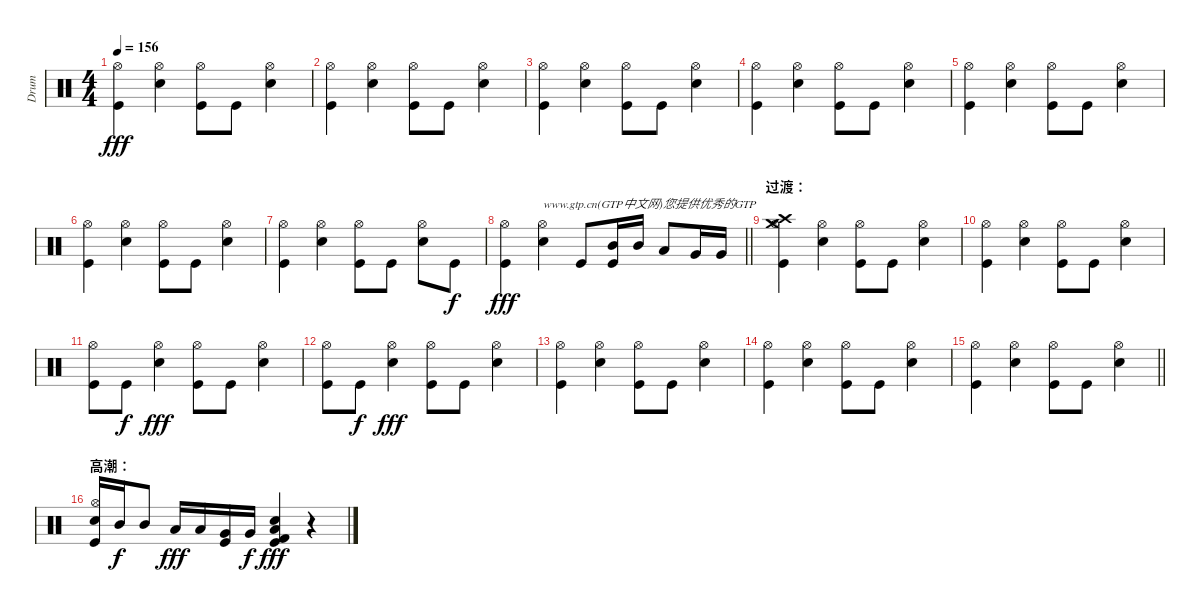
\track ("Drum" "Drum") {instrument percussion}
\staff {score}
\articulation defaults
\ts (4 4)
\tempo 156
\clef neutral
\ks c
("Kick (hit)" "Hi-Hat (open)").4{dy fff} ("Metronome (bell)" "Hi-Hat (open)").4 ("Kick (hit)" "Hi-Hat (open)").8 "Kick (hit)".8 ("Metronome (bell)" "Hi-Hat (open)").4 |
("Hi-Hat (open)" "Kick (hit)").4 ("Metronome (bell)" "Hi-Hat (open)").4 ("Hi-Hat (open)" "Kick (hit)").8 "Kick (hit)".8 ("Metronome (bell)" "Hi-Hat (open)").4 |
("Hi-Hat (open)" "Kick (hit)").4 ("Metronome (bell)" "Hi-Hat (open)").4 ("Hi-Hat (open)" "Kick (hit)").8 "Kick (hit)".8 ("Hi-Hat (open)" "Metronome (bell)").4 |
("Hi-Hat (open)" "Kick (hit)").4 ("Metronome (bell)" "Hi-Hat (open)").4 ("Hi-Hat (open)" "Kick (hit)").8 "Kick (hit)".8 ("Hi-Hat (open)" "Metronome (bell)").4 |
("Hi-Hat (open)" "Kick (hit)").4 ("Metronome (bell)" "Hi-Hat (open)").4 ("Hi-Hat (open)" "Kick (hit)").8 "Kick (hit)".8 ("Metronome (bell)" "Hi-Hat (open)").4 |
("Hi-Hat (open)" "Kick (hit)").4 ("Hi-Hat (open)" "Metronome (bell)").4 ("Hi-Hat (open)" "Kick (hit)").8 "Kick (hit)".8 ("Hi-Hat (open)" "Metronome (bell)").4 |
("Hi-Hat (open)" "Kick (hit)").4 ("Hi-Hat (open)" "Metronome (bell)").4 ("Kick (hit)" "Hi-Hat (open)").8 "Kick (hit)".8 ("Metronome (bell)" "Hi-Hat (open)").8 "Kick (hit)".8{dy f} |
\barLineRight lightlight
("Kick (hit)" "Hi-Hat (open)").4{dy fff} ("Metronome (bell)" "Hi-Hat (open)").4{txt "www.gtp.cn(GTP中文网)您提供优秀的GTP"} "Kick (hit)".8 ("Kick (hit)" "Mid Tom (hit)").16 "Mid Tom (hit)".16 "Low Tom (hit)".8 "Very Low Tom (hit)".16 "Very Low Tom (hit)".16 |
\section ("" "过渡：")
("Hi-Hat (open)" "Kick (hit)" "Crash medium (hit)" "Crash high (hit)").4 ("Metronome (bell)" "Hi-Hat (open)").4 ("Hi-Hat (open)" "Kick (hit)").8 "Kick (hit)".8 ("Metronome (bell)" "Hi-Hat (open)").4 |
("Hi-Hat (open)" "Kick (hit)").4 ("Metronome (bell)" "Hi-Hat (open)").4 ("Hi-Hat (open)" "Kick (hit)").8 "Kick (hit)".8 ("Hi-Hat (open)" "Metronome (bell)").4 |
("Kick (hit)" "Hi-Hat (open)").8 "Kick (hit)".8{dy f} ("Hi-Hat (open)" "Metronome (bell)").4{dy fff} ("Kick (hit)" "Hi-Hat (open)").8 "Kick (hit)".8 ("Metronome (bell)" "Hi-Hat (open)").4 |
("Kick (hit)" "Hi-Hat (open)").8 "Kick (hit)".8{dy f} ("Hi-Hat (open)" "Metronome (bell)").4{dy fff} ("Kick (hit)" "Hi-Hat (open)").8 "Kick (hit)".8 ("Metronome (bell)" "Hi-Hat (open)").4 |
("Hi-Hat (open)" "Kick (hit)").4 ("Hi-Hat (open)" "Metronome (bell)").4 ("Kick (hit)" "Hi-Hat (open)").8 "Kick (hit)".8 ("Metronome (bell)" "Hi-Hat (open)").4 |
("Kick (hit)" "Hi-Hat (open)").4 ("Metronome (bell)" "Hi-Hat (open)").4 ("Hi-Hat (open)" "Kick (hit)").8 "Kick (hit)".8 ("Hi-Hat (open)" "Metronome (bell)").4 |
\barLineRight lightlight
("Hi-Hat (open)" "Kick (hit)").4 ("Hi-Hat (open)" "Metronome (bell)").4 ("Kick (hit)" "Hi-Hat (open)").8 "Kick (hit)".8 ("Metronome (bell)" "Hi-Hat (open)").4 |
\section ("" "高潮：")
("Metronome (bell)" "Kick (hit)" "Hi-Hat (open)").16 "Mid Tom (hit)".16{dy f} "Mid Tom (hit)".8 "Low Tom (hit)".16{dy fff} "Low Tom (hit)".16 ("Very Low Tom (hit)" "Kick (hit)").16 "Very Low Tom (hit)".16{dy f} ("Metronome (bell)" "Low Floor Tom (hit)" "Kick (hit) 2" "Kick (hit)").4{dy fff} r.4
